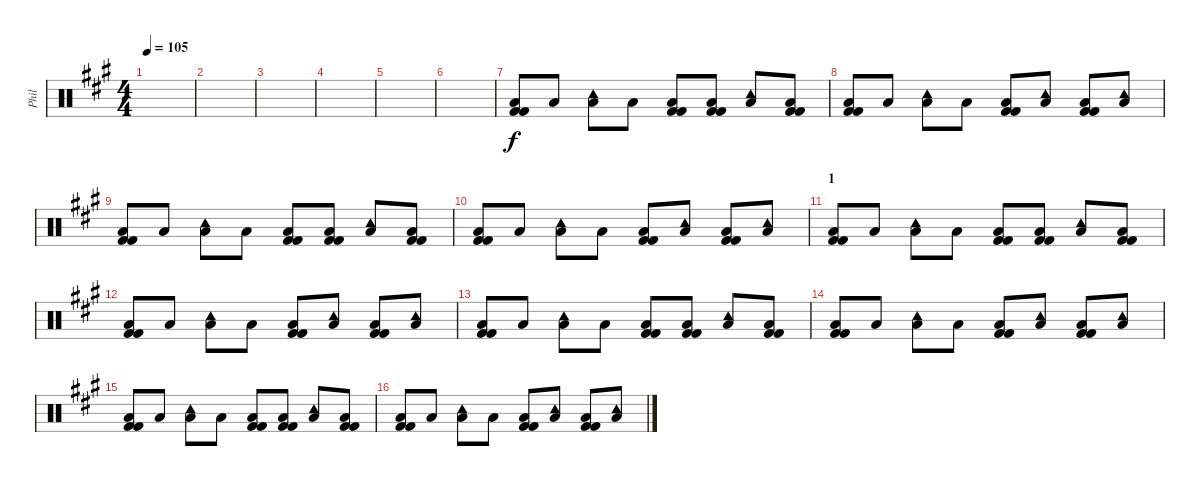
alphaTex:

\track ("Phil" "Phil") {instrument percussion}
\staff {score}
\articulation defaults
\ts (4 4)
\tempo 105
\clef neutral
\ks a
|
|
|
|
|
|
("Kick (hit) 2" "Low Floor Tom (hit)" "Kick (hit) 2").8 "Low Floor Tom (hit)".8 ("Low Floor Tom (hit)" "Tambourine (hit)").8 "Low Floor Tom (hit)".8 ("Kick (hit) 2" "Low Floor Tom (hit)" "Kick (hit) 2").8 ("Kick (hit) 2" "Low Floor Tom (hit)" "Kick (hit) 2").8 ("Low Floor Tom (hit)" "Tambourine (hit)").8 ("Kick (hit) 2" "Low Floor Tom (hit)" "Kick (hit) 2").8 |
("Kick (hit) 2" "Low Floor Tom (hit)" "Kick (hit) 2").8 "Low Floor Tom (hit)".8 ("Low Floor Tom (hit)" "Tambourine (hit)").8 "Low Floor Tom (hit)".8 ("Kick (hit) 2" "Low Floor Tom (hit)" "Kick (hit) 2").8 ("Low Floor Tom (hit)" "Tambourine (hit)").8 ("Kick (hit) 2" "Low Floor Tom (hit)" "Kick (hit) 2").8 ("Low Floor Tom (hit)" "Tambourine (hit)").8 |
("Kick (hit) 2" "Low Floor Tom (hit)" "Kick (hit) 2").8 "Low Floor Tom (hit)".8 ("Low Floor Tom (hit)" "Tambourine (hit)").8 "Low Floor Tom (hit)".8 ("Kick (hit) 2" "Low Floor Tom (hit)" "Kick (hit) 2").8 ("Kick (hit) 2" "Low Floor Tom (hit)" "Kick (hit) 2").8 ("Low Floor Tom (hit)" "Tambourine (hit)").8 ("Kick (hit) 2" "Low Floor Tom (hit)" "Kick (hit) 2").8 |
("Kick (hit) 2" "Low Floor Tom (hit)" "Kick (hit) 2").8 "Low Floor Tom (hit)".8 ("Low Floor Tom (hit)" "Tambourine (hit)").8 "Low Floor Tom (hit)".8 ("Kick (hit) 2" "Low Floor Tom (hit)" "Kick (hit) 2").8 ("Low Floor Tom (hit)" "Tambourine (hit)").8 ("Kick (hit) 2" "Low Floor Tom (hit)" "Kick (hit) 2").8 ("Low Floor Tom (hit)" "Tambourine (hit)").8 |
\section ("" "1")
("Kick (hit) 2" "Low Floor Tom (hit)" "Kick (hit) 2").8 "Low Floor Tom (hit)".8 ("Low Floor Tom (hit)" "Tambourine (hit)").8 "Low Floor Tom (hit)".8 ("Kick (hit) 2" "Low Floor Tom (hit)" "Kick (hit) 2").8 ("Kick (hit) 2" "Low Floor Tom (hit)" "Kick (hit) 2").8 ("Low Floor Tom (hit)" "Tambourine (hit)").8 ("Kick (hit) 2" "Low Floor Tom (hit)" "Kick (hit) 2").8 |
("Kick (hit) 2" "Low Floor Tom (hit)" "Kick (hit) 2").8 "Low Floor Tom (hit)".8 ("Low Floor Tom (hit)" "Tambourine (hit)").8 "Low Floor Tom (hit)".8 ("Kick (hit) 2" "Low Floor Tom (hit)" "Kick (hit) 2").8 ("Low Floor Tom (hit)" "Tambourine (hit)").8 ("Kick (hit) 2" "Low Floor Tom (hit)" "Kick (hit) 2").8 ("Low Floor Tom (hit)" "Tambourine (hit)").8 |
("Kick (hit) 2" "Low Floor Tom (hit)" "Kick (hit) 2").8 "Low Floor Tom (hit)".8 ("Low Floor Tom (hit)" "Tambourine (hit)").8 "Low Floor Tom (hit)".8 ("Kick (hit) 2" "Low Floor Tom (hit)" "Kick (hit) 2").8 ("Kick (hit) 2" "Low Floor Tom (hit)" "Kick (hit) 2").8 ("Low Floor Tom (hit)" "Tambourine (hit)").8 ("Kick (hit) 2" "Low Floor Tom (hit)" "Kick (hit) 2").8 |
("Kick (hit) 2" "Low Floor Tom (hit)" "Kick (hit) 2").8 "Low Floor Tom (hit)".8 ("Low Floor Tom (hit)" "Tambourine (hit)").8 "Low Floor Tom (hit)".8 ("Kick (hit) 2" "Low Floor Tom (hit)" "Kick (hit) 2").8 ("Low Floor Tom (hit)" "Tambourine (hit)").8 ("Kick (hit) 2" "Low Floor Tom (hit)" "Kick (hit) 2").8 ("Low Floor Tom (hit)" "Tambourine (hit)").8 |
("Kick (hit) 2" "Low Floor Tom (hit)" "Kick (hit) 2").8 "Low Floor Tom (hit)".8 ("Low Floor Tom (hit)" "Tambourine (hit)").8 "Low Floor Tom (hit)".8 ("Kick (hit) 2" "Low Floor Tom (hit)" "Kick (hit) 2").8 ("Kick (hit) 2" "Low Floor Tom (hit)" "Kick (hit) 2").8 ("Low Floor Tom (hit)" "Tambourine (hit)").8 ("Kick (hit) 2" "Low Floor Tom (hit)" "Kick (hit) 2").8 |
("Kick (hit) 2" "Low Floor Tom (hit)" "Kick (hit) 2").8 "Low Floor Tom (hit)".8 ("Low Floor Tom (hit)" "Tambourine (hit)").8 "Low Floor Tom (hit)".8 ("Kick (hit) 2" "Low Floor Tom (hit)" "Kick (hit) 2").8 ("Low Floor Tom (hit)" "Tambourine (hit)").8 ("Kick (hit) 2" "Low Floor Tom (hit)" "Kick (hit) 2").8 ("Low Floor Tom (hit)" "Tambourine (hit)").8
